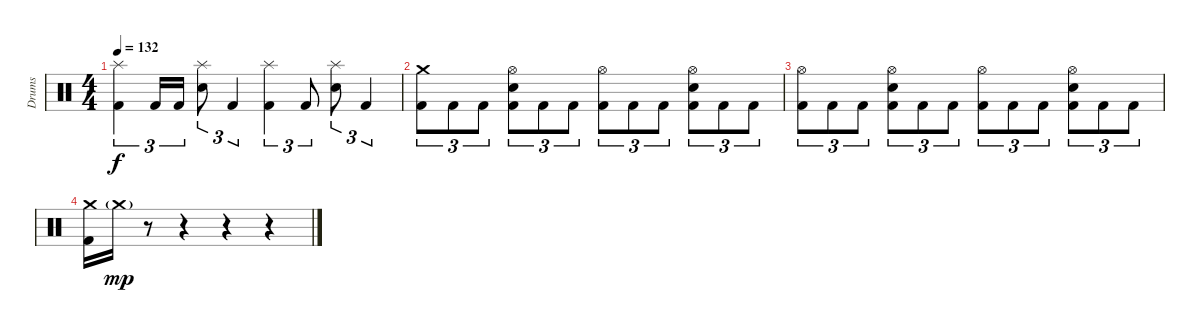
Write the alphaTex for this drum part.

\track ("Drums" "Drums") {instrument percussion}
\staff {score}
\articulation defaults
\ts (4 4)
\tempo 132
\clef neutral
\ks c
("Splash (hit)" "Kick (hit) 2").4{tu (3 2) dy f} "Kick (hit) 2".16{tu (3 2)} "Kick (hit) 2".16{tu (3 2)} ("Splash (hit)" "Electric Snare (hit)").8{tu (3 2)} "Kick (hit) 2".4{tu (3 2)} ("Splash (hit)" "Kick (hit) 2").4{tu (3 2)} "Kick (hit) 2".8{tu (3 2)} ("Splash (hit)" "Electric Snare (hit)").8{tu (3 2)} "Kick (hit) 2".4{tu (3 2)} |
("Crash medium (hit)" "Kick (hit) 2").8{tu (3 2)} "Kick (hit) 2".8{tu (3 2)} "Kick (hit) 2".8{tu (3 2)} ("Hi-Hat (open)" "Electric Snare (hit)" "Kick (hit) 2").8{tu (3 2)} "Kick (hit) 2".8{tu (3 2)} "Kick (hit) 2".8{tu (3 2)} ("Hi-Hat (open)" "Kick (hit) 2").8{tu (3 2)} "Kick (hit) 2".8{tu (3 2)} "Kick (hit) 2".8{tu (3 2)} ("Hi-Hat (open)" "Electric Snare (hit)" "Kick (hit) 2").8{tu (3 2)} "Kick (hit) 2".8{tu (3 2)} "Kick (hit) 2".8{tu (3 2)} |
("Hi-Hat (open)" "Kick (hit) 2").8{tu (3 2)} "Kick (hit) 2".8{tu (3 2)} "Kick (hit) 2".8{tu (3 2)} ("Hi-Hat (open)" "Electric Snare (hit)" "Kick (hit) 2").8{tu (3 2)} "Kick (hit) 2".8{tu (3 2)} "Kick (hit) 2".8{tu (3 2)} ("Hi-Hat (open)" "Kick (hit) 2").8{tu (3 2)} "Kick (hit) 2".8{tu (3 2)} "Kick (hit) 2".8{tu (3 2)} ("Hi-Hat (open)" "Electric Snare (hit)" "Kick (hit) 2").8{tu (3 2)} "Kick (hit) 2".8{tu (3 2)} "Kick (hit) 2".8{tu (3 2)} |
("Crash medium (hit)" "Kick (hit) 2").16 "Crash medium (hit)"{g}.16{dy mp} r.8 r.4 r.4 r.4
